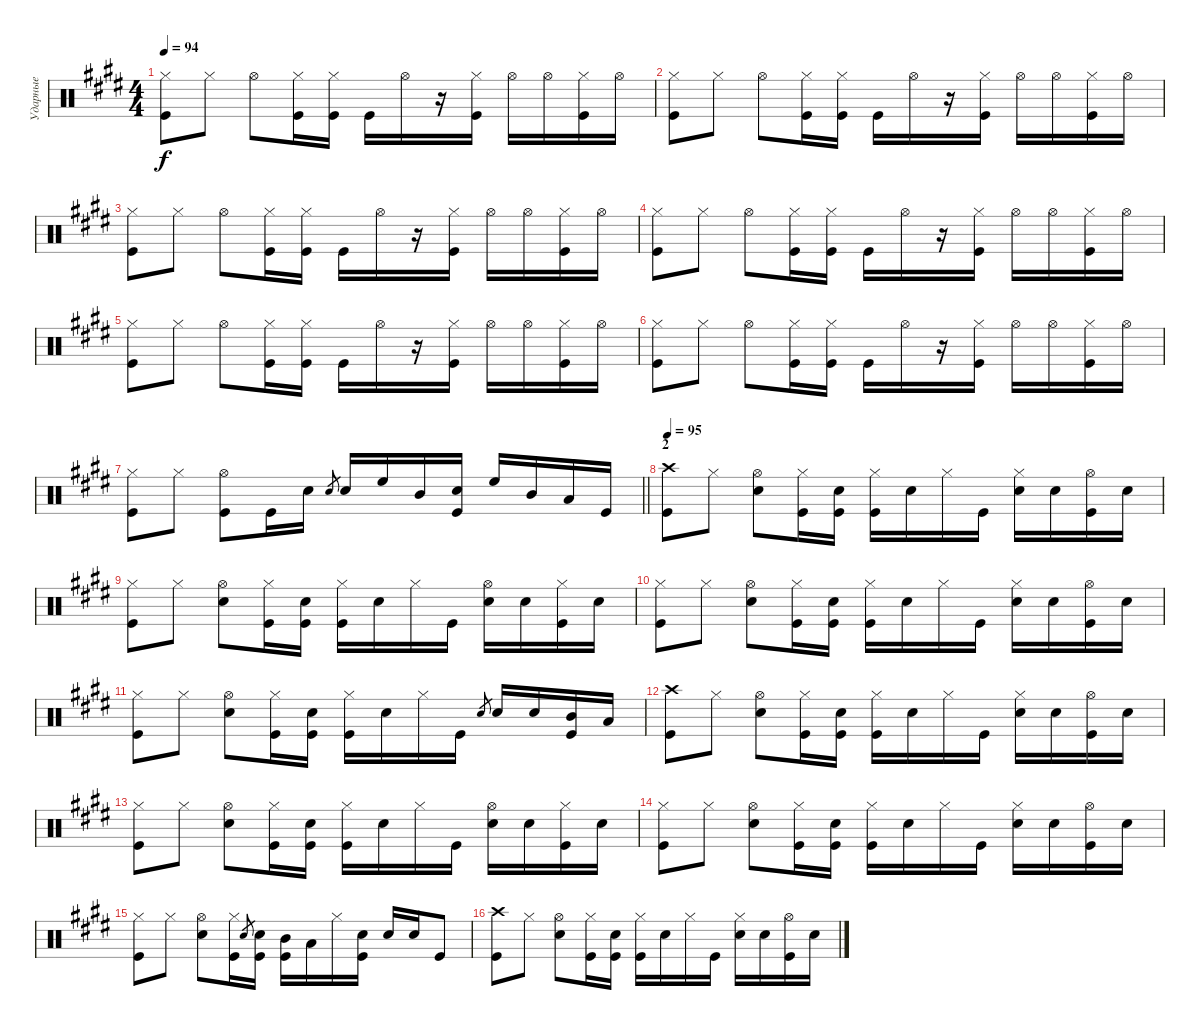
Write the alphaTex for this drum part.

\track ("Ударные" "Ударные") {instrument percussion}
\staff {score}
\articulation defaults
\ts (4 4)
\tempo 94
\clef neutral
\ks c#minor
("Hi-Hat (closed)" "Kick (hit)").8{dy f} "Hi-Hat (closed)".8 "Hi-Hat (open)".8 ("Hi-Hat (closed)" "Kick (hit)").16 ("Hi-Hat (closed)" "Kick (hit)").16 "Kick (hit)".16 "Hi-Hat (open)".16 r.16 ("Hi-Hat (closed)" "Kick (hit)").16 "Hi-Hat (open)".16 "Hi-Hat (open)".16 ("Hi-Hat (closed)" "Kick (hit)").16 "Hi-Hat (open)".16 |
("Hi-Hat (closed)" "Kick (hit)").8 "Hi-Hat (closed)".8 "Hi-Hat (open)".8 ("Hi-Hat (closed)" "Kick (hit)").16 ("Hi-Hat (closed)" "Kick (hit)").16 "Kick (hit)".16 "Hi-Hat (open)".16 r.16 ("Hi-Hat (closed)" "Kick (hit)").16 "Hi-Hat (open)".16 "Hi-Hat (open)".16 ("Hi-Hat (closed)" "Kick (hit)").16 "Hi-Hat (open)".16 |
("Hi-Hat (closed)" "Kick (hit)").8 "Hi-Hat (closed)".8 "Hi-Hat (open)".8 ("Hi-Hat (closed)" "Kick (hit)").16 ("Hi-Hat (closed)" "Kick (hit)").16 "Kick (hit)".16 "Hi-Hat (open)".16 r.16 ("Hi-Hat (closed)" "Kick (hit)").16 "Hi-Hat (open)".16 "Hi-Hat (open)".16 ("Hi-Hat (closed)" "Kick (hit)").16 "Hi-Hat (open)".16 |
("Hi-Hat (closed)" "Kick (hit)").8 "Hi-Hat (closed)".8 "Hi-Hat (open)".8 ("Hi-Hat (closed)" "Kick (hit)").16 ("Hi-Hat (closed)" "Kick (hit)").16 "Kick (hit)".16 "Hi-Hat (open)".16 r.16 ("Hi-Hat (closed)" "Kick (hit)").16 "Hi-Hat (open)".16 "Hi-Hat (open)".16 ("Hi-Hat (closed)" "Kick (hit)").16 "Hi-Hat (open)".16 |
("Hi-Hat (closed)" "Kick (hit)").8 "Hi-Hat (closed)".8 "Hi-Hat (open)".8 ("Hi-Hat (closed)" "Kick (hit)").16 ("Hi-Hat (closed)" "Kick (hit)").16 "Kick (hit)".16 "Hi-Hat (open)".16 r.16 ("Hi-Hat (closed)" "Kick (hit)").16 "Hi-Hat (open)".16 "Hi-Hat (open)".16 ("Hi-Hat (closed)" "Kick (hit)").16 "Hi-Hat (open)".16 |
("Hi-Hat (closed)" "Kick (hit)").8 "Hi-Hat (closed)".8 "Hi-Hat (open)".8 ("Hi-Hat (closed)" "Kick (hit)").16 ("Hi-Hat (closed)" "Kick (hit)").16 "Kick (hit)".16 "Hi-Hat (open)".16 r.16 ("Hi-Hat (closed)" "Kick (hit)").16 "Hi-Hat (open)".16 "Hi-Hat (open)".16 ("Hi-Hat (closed)" "Kick (hit)").16 "Hi-Hat (open)".16 |
\barLineRight lightlight
("Hi-Hat (closed)" "Kick (hit)").8 "Hi-Hat (closed)".8 ("Kick (hit)" "Hi-Hat (open)").8 "Kick (hit)".16 "Snare (hit) 2".16 "Snare (hit) 2".8{gr} "Snare (hit) 2".16 "High Floor Tom (hit)".16 "Mid Tom (hit)".16 ("Snare (hit) 2" "Kick (hit)").16 "High Floor Tom (hit)".16 "Mid Tom (hit)".16 "Low Tom (hit)".16 "Kick (hit)".16 |
\section ("" "2")
\tempo 95
("Crash high (hit)" "Kick (hit)").8 "Hi-Hat (closed)".8 ("Hi-Hat (open)" "Snare (hit) 2").8 ("Hi-Hat (closed)" "Kick (hit)").16 ("Kick (hit)" "Snare (hit) 2").16 ("Hi-Hat (closed)" "Kick (hit)").16 "Snare (hit) 2".16 "Hi-Hat (closed)".16 "Kick (hit)".16 ("Hi-Hat (closed)" "Snare (hit) 2").16 "Snare (hit) 2".16 ("Hi-Hat (open)" "Kick (hit)").16 "Snare (hit) 2".16 |
("Hi-Hat (closed)" "Kick (hit)").8 "Hi-Hat (closed)".8 ("Hi-Hat (open)" "Snare (hit) 2").8 ("Hi-Hat (closed)" "Kick (hit)").16 ("Kick (hit)" "Snare (hit) 2").16 ("Hi-Hat (closed)" "Kick (hit)").16 "Snare (hit) 2".16 "Hi-Hat (closed)".16 "Kick (hit)".16 ("Hi-Hat (open)" "Snare (hit) 2").16 "Snare (hit) 2".16 ("Hi-Hat (closed)" "Kick (hit)").16 "Snare (hit) 2".16 |
("Hi-Hat (closed)" "Kick (hit)").8 "Hi-Hat (closed)".8 ("Hi-Hat (open)" "Snare (hit) 2").8 ("Hi-Hat (closed)" "Kick (hit)").16 ("Kick (hit)" "Snare (hit) 2").16 ("Hi-Hat (closed)" "Kick (hit)").16 "Snare (hit) 2".16 "Hi-Hat (closed)".16 "Kick (hit)".16 ("Hi-Hat (closed)" "Snare (hit) 2").16 "Snare (hit) 2".16 ("Hi-Hat (open)" "Kick (hit)").16 "Snare (hit) 2".16 |
("Hi-Hat (closed)" "Kick (hit)").8 "Hi-Hat (closed)".8 ("Hi-Hat (open)" "Snare (hit) 2").8 ("Hi-Hat (closed)" "Kick (hit)").16 ("Kick (hit)" "Snare (hit) 2").16 ("Hi-Hat (closed)" "Kick (hit)").16 "Snare (hit) 2".16 "Hi-Hat (closed)".16 "Kick (hit)".16 "Snare (hit) 2".8{gr} "Snare (hit) 2".16 "Snare (hit) 2".16 ("Kick (hit)" "Mid Tom (hit)").16 "Low Tom (hit)".16 |
("Crash high (hit)" "Kick (hit)").8 "Hi-Hat (closed)".8 ("Hi-Hat (open)" "Snare (hit) 2").8 ("Hi-Hat (closed)" "Kick (hit)").16 ("Kick (hit)" "Snare (hit) 2").16 ("Hi-Hat (closed)" "Kick (hit)").16 "Snare (hit) 2".16 "Hi-Hat (closed)".16 "Kick (hit)".16 ("Hi-Hat (closed)" "Snare (hit) 2").16 "Snare (hit) 2".16 ("Hi-Hat (open)" "Kick (hit)").16 "Snare (hit) 2".16 |
("Hi-Hat (closed)" "Kick (hit)").8 "Hi-Hat (closed)".8 ("Hi-Hat (open)" "Snare (hit) 2").8 ("Hi-Hat (closed)" "Kick (hit)").16 ("Kick (hit)" "Snare (hit) 2").16 ("Hi-Hat (closed)" "Kick (hit)").16 "Snare (hit) 2".16 "Hi-Hat (closed)".16 "Kick (hit)".16 ("Hi-Hat (open)" "Snare (hit) 2").16 "Snare (hit) 2".16 ("Hi-Hat (closed)" "Kick (hit)").16 "Snare (hit) 2".16 |
("Hi-Hat (closed)" "Kick (hit)").8 "Hi-Hat (closed)".8 ("Hi-Hat (open)" "Snare (hit) 2").8 ("Hi-Hat (closed)" "Kick (hit)").16 ("Kick (hit)" "Snare (hit) 2").16 ("Hi-Hat (closed)" "Kick (hit)").16 "Snare (hit) 2".16 "Hi-Hat (closed)".16 "Kick (hit)".16 ("Hi-Hat (closed)" "Snare (hit) 2").16 "Snare (hit) 2".16 ("Hi-Hat (open)" "Kick (hit)").16 "Snare (hit) 2".16 |
("Hi-Hat (closed)" "Kick (hit)").8 "Hi-Hat (closed)".8 ("Hi-Hat (open)" "Snare (hit) 2").8 ("Hi-Hat (closed)" "Kick (hit)").16 "Snare (hit) 2".8{gr} ("Kick (hit)" "Snare (hit) 2").16 ("Kick (hit)" "Mid Tom (hit)").16 "Low Tom (hit)".16 "Hi-Hat (closed)".16 ("Kick (hit)" "Snare (hit) 2").16 "Snare (hit) 2".16 "Snare (hit) 2".16 "Kick (hit)".8 |
("Crash high (hit)" "Kick (hit)").8 "Hi-Hat (closed)".8 ("Hi-Hat (open)" "Snare (hit) 2").8 ("Hi-Hat (closed)" "Kick (hit)").16 ("Kick (hit)" "Snare (hit) 2").16 ("Hi-Hat (closed)" "Kick (hit)").16 "Snare (hit) 2".16 "Hi-Hat (closed)".16 "Kick (hit)".16 ("Hi-Hat (closed)" "Snare (hit) 2").16 "Snare (hit) 2".16 ("Hi-Hat (open)" "Kick (hit)").16 "Snare (hit) 2".16
